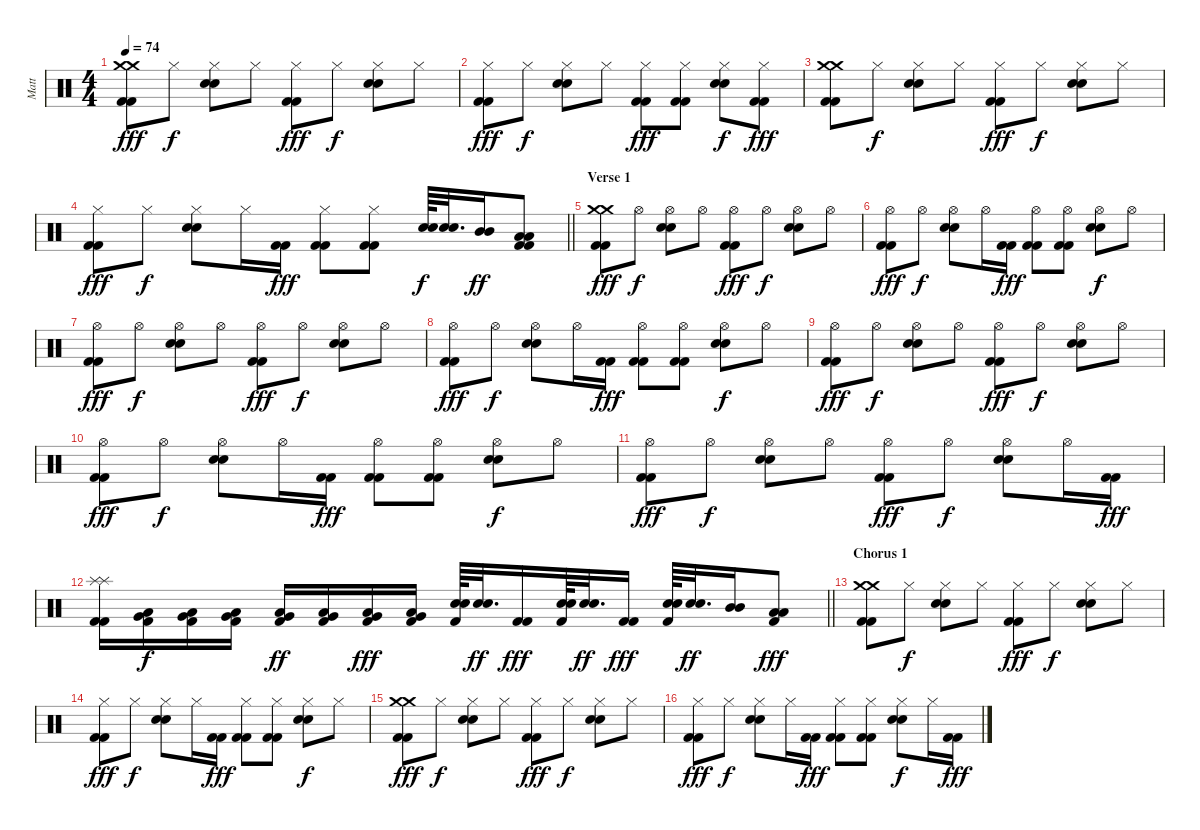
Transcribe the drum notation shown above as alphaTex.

\track ("Matt" "Matt") {instrument percussion}
\staff {score}
\articulation defaults
\ts (4 4)
\tempo 74
\clef neutral
\ks c
("Crash medium (hit)" "Crash medium (hit)" "Kick (hit) 2" "Kick (hit) 2").8{dy fff} "Hi-Hat (closed)".8{dy f} ("Hi-Hat (closed)" "Electric Snare (hit)" "Electric Snare (hit)").8 "Hi-Hat (closed)".8 ("Hi-Hat (closed)" "Kick (hit) 2" "Kick (hit) 2").8{dy fff} "Hi-Hat (closed)".8{dy f} ("Hi-Hat (closed)" "Electric Snare (hit)" "Electric Snare (hit)").8 "Hi-Hat (closed)".8 |
("Hi-Hat (closed)" "Kick (hit) 2" "Kick (hit) 2").8{dy fff} "Hi-Hat (closed)".8{dy f} ("Hi-Hat (closed)" "Electric Snare (hit)" "Electric Snare (hit)").8 "Hi-Hat (closed)".8 ("Hi-Hat (closed)" "Kick (hit) 2" "Kick (hit) 2").8{dy fff} ("Hi-Hat (closed)" "Kick (hit) 2" "Kick (hit) 2").8 ("Hi-Hat (closed)" "Electric Snare (hit)" "Electric Snare (hit)").8{dy f} ("Hi-Hat (closed)" "Kick (hit) 2" "Kick (hit) 2").8{dy fff} |
("Crash medium (hit)" "Crash medium (hit)" "Kick (hit) 2" "Kick (hit) 2").8 "Hi-Hat (closed)".8{dy f} ("Hi-Hat (closed)" "Electric Snare (hit)" "Electric Snare (hit)").8 "Hi-Hat (closed)".8 ("Hi-Hat (closed)" "Kick (hit) 2" "Kick (hit) 2").8{dy fff} "Hi-Hat (closed)".8{dy f} ("Hi-Hat (closed)" "Electric Snare (hit)" "Electric Snare (hit)").8 "Hi-Hat (closed)".8 |
\barLineRight lightlight
("Hi-Hat (closed)" "Kick (hit) 2" "Kick (hit) 2").8{dy fff} "Hi-Hat (closed)".8{dy f} ("Hi-Hat (closed)" "Electric Snare (hit)" "Electric Snare (hit)").8 "Hi-Hat (closed)".16 ("Kick (hit) 2" "Kick (hit) 2").16{dy fff} ("Hi-Hat (closed)" "Kick (hit) 2" "Kick (hit) 2").8 ("Hi-Hat (closed)" "Kick (hit) 2" "Kick (hit) 2").8 ("Electric Snare (hit)" "Electric Snare (hit)").64{dy f} ("Electric Snare (hit)" "Electric Snare (hit)").32{d} ("Mid Tom (hit)" "Mid Tom (hit)").16{dy ff} ("Low Tom (hit)" "Low Tom (hit)" "Kick (hit) 2" "Kick (hit) 2").8 |
\section ("" "Verse 1")
("Crash medium (hit)" "Crash medium (hit)" "Kick (hit) 2" "Kick (hit) 2").8{dy fff} "Hi-Hat (open)".8{dy f} ("Hi-Hat (open)" "Electric Snare (hit)" "Electric Snare (hit)").8 "Hi-Hat (open)".8 ("Hi-Hat (open)" "Kick (hit) 2" "Kick (hit) 2").8{dy fff} "Hi-Hat (open)".8{dy f} ("Hi-Hat (open)" "Electric Snare (hit)" "Electric Snare (hit)").8 "Hi-Hat (open)".8 |
("Hi-Hat (open)" "Kick (hit) 2" "Kick (hit) 2").8{dy fff} "Hi-Hat (open)".8{dy f} ("Hi-Hat (open)" "Electric Snare (hit)" "Electric Snare (hit)").8 "Hi-Hat (open)".16 ("Kick (hit) 2" "Kick (hit) 2").16{dy fff} ("Hi-Hat (open)" "Kick (hit) 2" "Kick (hit) 2").8 ("Hi-Hat (open)" "Kick (hit) 2" "Kick (hit) 2").8 ("Hi-Hat (open)" "Electric Snare (hit)" "Electric Snare (hit)").8{dy f} "Hi-Hat (open)".8 |
("Hi-Hat (open)" "Kick (hit) 2" "Kick (hit) 2").8{dy fff} "Hi-Hat (open)".8{dy f} ("Hi-Hat (open)" "Electric Snare (hit)" "Electric Snare (hit)").8 "Hi-Hat (open)".8 ("Hi-Hat (open)" "Kick (hit) 2" "Kick (hit) 2").8{dy fff} "Hi-Hat (open)".8{dy f} ("Hi-Hat (open)" "Electric Snare (hit)" "Electric Snare (hit)").8 "Hi-Hat (open)".8 |
("Hi-Hat (open)" "Kick (hit) 2" "Kick (hit) 2").8{dy fff} "Hi-Hat (open)".8{dy f} ("Hi-Hat (open)" "Electric Snare (hit)" "Electric Snare (hit)").8 "Hi-Hat (open)".16 ("Kick (hit) 2" "Kick (hit) 2").16{dy fff} ("Hi-Hat (open)" "Kick (hit) 2" "Kick (hit) 2").8 ("Hi-Hat (open)" "Kick (hit) 2" "Kick (hit) 2").8 ("Hi-Hat (open)" "Electric Snare (hit)" "Electric Snare (hit)").8{dy f} "Hi-Hat (open)".8 |
("Hi-Hat (open)" "Kick (hit) 2" "Kick (hit) 2").8{dy fff} "Hi-Hat (open)".8{dy f} ("Hi-Hat (open)" "Electric Snare (hit)" "Electric Snare (hit)").8 "Hi-Hat (open)".8 ("Hi-Hat (open)" "Kick (hit) 2" "Kick (hit) 2").8{dy fff} "Hi-Hat (open)".8{dy f} ("Hi-Hat (open)" "Electric Snare (hit)" "Electric Snare (hit)").8 "Hi-Hat (open)".8 |
("Hi-Hat (open)" "Kick (hit) 2" "Kick (hit) 2").8{dy fff} "Hi-Hat (open)".8{dy f} ("Hi-Hat (open)" "Electric Snare (hit)" "Electric Snare (hit)").8 "Hi-Hat (open)".16 ("Kick (hit) 2" "Kick (hit) 2").16{dy fff} ("Hi-Hat (open)" "Kick (hit) 2" "Kick (hit) 2").8 ("Hi-Hat (open)" "Kick (hit) 2" "Kick (hit) 2").8 ("Hi-Hat (open)" "Electric Snare (hit)" "Electric Snare (hit)").8{dy f} "Hi-Hat (open)".8 |
("Hi-Hat (open)" "Kick (hit) 2" "Kick (hit) 2").8{dy fff} "Hi-Hat (open)".8{dy f} ("Hi-Hat (open)" "Electric Snare (hit)" "Electric Snare (hit)").8 "Hi-Hat (open)".8 ("Hi-Hat (open)" "Kick (hit) 2" "Kick (hit) 2").8{dy fff} "Hi-Hat (open)".8{dy f} ("Hi-Hat (open)" "Electric Snare (hit)" "Electric Snare (hit)").8 "Hi-Hat (open)".16 ("Kick (hit) 2" "Kick (hit) 2").16{dy fff} |
\barLineRight lightlight
("Splash (hit)" "Splash (hit)" "Kick (hit) 2" "Kick (hit) 2").16 ("Low Tom (hit)" "Very Low Tom (hit)" "Kick (hit) 2").16{dy f} ("Low Tom (hit)" "Very Low Tom (hit)" "Kick (hit) 2").16 ("Low Tom (hit)" "Very Low Tom (hit)" "Kick (hit) 2").16 ("Low Tom (hit)" "Very Low Tom (hit)" "Kick (hit) 2").16{dy ff} ("Low Tom (hit)" "Very Low Tom (hit)" "Kick (hit) 2").16 ("Low Tom (hit)" "Very Low Tom (hit)" "Kick (hit) 2").16{dy fff} ("Low Tom (hit)" "Very Low Tom (hit)" "Kick (hit) 2").16 ("Electric Snare (hit)" "Electric Snare (hit)" "Kick (hit) 2").64 ("Electric Snare (hit)" "Electric Snare (hit)").32{d dy ff} ("Kick (hit) 2" "Kick (hit) 2").16{dy fff} ("Electric Snare (hit)" "Electric Snare (hit)" "Kick (hit) 2").64 ("Electric Snare (hit)" "Electric Snare (hit)").32{d dy ff} ("Kick (hit) 2" "Kick (hit) 2").16{dy fff} ("Electric Snare (hit)" "Electric Snare (hit)" "Kick (hit) 2").64 ("Electric Snare (hit)" "Electric Snare (hit)").32{d dy ff} ("Mid Tom (hit)" "Mid Tom (hit)").16 ("Low Tom (hit)" "Low Tom (hit)" "Kick (hit) 2").8{dy fff} |
\section ("" "Chorus 1")
("Crash medium (hit)" "Crash medium (hit)" "Kick (hit) 2" "Kick (hit) 2").8 "Hi-Hat (closed)".8{dy f} ("Hi-Hat (closed)" "Electric Snare (hit)" "Electric Snare (hit)").8 "Hi-Hat (closed)".8 ("Hi-Hat (closed)" "Kick (hit) 2" "Kick (hit) 2").8{dy fff} "Hi-Hat (closed)".8{dy f} ("Hi-Hat (closed)" "Electric Snare (hit)" "Electric Snare (hit)").8 "Hi-Hat (closed)".8 |
("Hi-Hat (closed)" "Kick (hit) 2" "Kick (hit) 2").8{dy fff} "Hi-Hat (closed)".8{dy f} ("Hi-Hat (closed)" "Electric Snare (hit)" "Electric Snare (hit)").8 "Hi-Hat (closed)".16 ("Kick (hit) 2" "Kick (hit) 2").16{dy fff} ("Hi-Hat (closed)" "Kick (hit) 2" "Kick (hit) 2").8 ("Hi-Hat (closed)" "Kick (hit) 2" "Kick (hit) 2").8 ("Hi-Hat (closed)" "Electric Snare (hit)" "Electric Snare (hit)").8{dy f} "Hi-Hat (closed)".8 |
("Crash medium (hit)" "Crash medium (hit)" "Kick (hit) 2" "Kick (hit) 2").8{dy fff} "Hi-Hat (closed)".8{dy f} ("Hi-Hat (closed)" "Electric Snare (hit)" "Electric Snare (hit)").8 "Hi-Hat (closed)".8 ("Hi-Hat (closed)" "Kick (hit) 2" "Kick (hit) 2").8{dy fff} "Hi-Hat (closed)".8{dy f} ("Hi-Hat (closed)" "Electric Snare (hit)" "Electric Snare (hit)").8 "Hi-Hat (closed)".8 |
("Hi-Hat (closed)" "Kick (hit) 2" "Kick (hit) 2").8{dy fff} "Hi-Hat (closed)".8{dy f} ("Hi-Hat (closed)" "Electric Snare (hit)" "Electric Snare (hit)").8 "Hi-Hat (closed)".16 ("Kick (hit) 2" "Kick (hit) 2").16{dy fff} ("Hi-Hat (closed)" "Kick (hit) 2" "Kick (hit) 2").8 ("Hi-Hat (closed)" "Kick (hit) 2" "Kick (hit) 2").8 ("Hi-Hat (closed)" "Electric Snare (hit)" "Electric Snare (hit)").8{dy f} "Hi-Hat (closed)".16 ("Kick (hit) 2" "Kick (hit) 2").16{dy fff}
